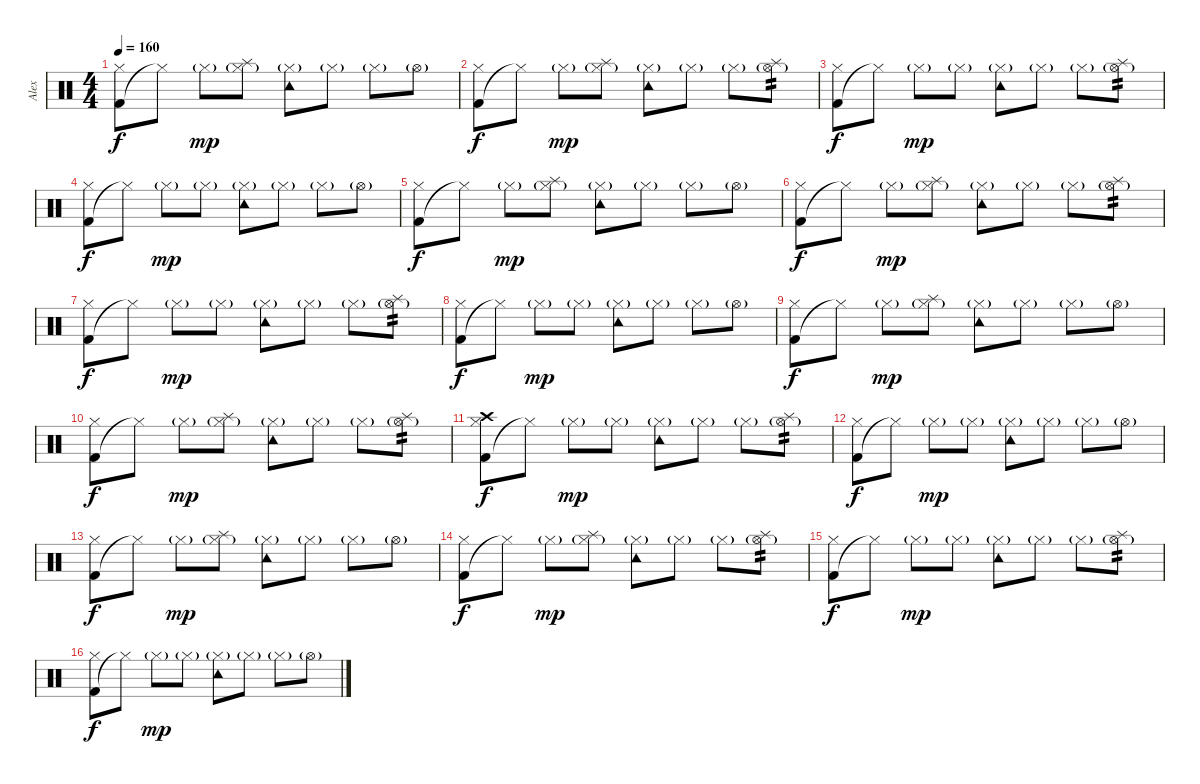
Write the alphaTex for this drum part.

\track ("Alex" "Alex") {instrument percussion}
\staff {score}
\articulation defaults
\ts (4 4)
\tempo 160
\clef neutral
\ks c
("Kick (hit) 2" "Hi-Hat (closed)").8{dy f} "Hi-Hat (closed)"{t}.8 "Hi-Hat (closed)"{g}.8{dy mp} ("Hi-Hat (closed)"{g} "Splash (hit)").8 ("Tambourine (hit)" "Hi-Hat (closed)"{g}).8 "Hi-Hat (closed)"{g}.8 "Hi-Hat (closed)"{g}.8 "Hi-Hat (open)"{g}.8 |
("Kick (hit) 2" "Hi-Hat (closed)").8{dy f} "Hi-Hat (closed)"{t}.8 "Hi-Hat (closed)"{g}.8{dy mp} ("Hi-Hat (closed)"{g} "Splash (hit)").8 ("Tambourine (hit)" "Hi-Hat (closed)"{g}).8 "Hi-Hat (closed)"{g}.8 "Hi-Hat (closed)"{g}.8 ("Hi-Hat (open)"{g} "Splash (hit)").8{tp 2} |
("Kick (hit) 2" "Hi-Hat (closed)").8{dy f} "Hi-Hat (closed)"{t}.8 "Hi-Hat (closed)"{g}.8{dy mp} "Hi-Hat (closed)"{g}.8 ("Tambourine (hit)" "Hi-Hat (closed)"{g}).8 "Hi-Hat (closed)"{g}.8 "Hi-Hat (closed)"{g}.8 ("Hi-Hat (open)"{g} "Splash (hit)").8{tp 2} |
("Kick (hit) 2" "Hi-Hat (closed)").8{dy f} "Hi-Hat (closed)"{t}.8 "Hi-Hat (closed)"{g}.8{dy mp} "Hi-Hat (closed)"{g}.8 ("Tambourine (hit)" "Hi-Hat (closed)"{g}).8 "Hi-Hat (closed)"{g}.8 "Hi-Hat (closed)"{g}.8 "Hi-Hat (open)"{g}.8 |
("Kick (hit) 2" "Hi-Hat (closed)").8{dy f} "Hi-Hat (closed)"{t}.8 "Hi-Hat (closed)"{g}.8{dy mp} ("Hi-Hat (closed)"{g} "Splash (hit)").8 ("Tambourine (hit)" "Hi-Hat (closed)"{g}).8 "Hi-Hat (closed)"{g}.8 "Hi-Hat (closed)"{g}.8 "Hi-Hat (open)"{g}.8 |
("Kick (hit) 2" "Hi-Hat (closed)").8{dy f} "Hi-Hat (closed)"{t}.8 "Hi-Hat (closed)"{g}.8{dy mp} ("Hi-Hat (closed)"{g} "Splash (hit)").8 ("Tambourine (hit)" "Hi-Hat (closed)"{g}).8 "Hi-Hat (closed)"{g}.8 "Hi-Hat (closed)"{g}.8 ("Hi-Hat (open)"{g} "Splash (hit)").8{tp 2} |
("Kick (hit) 2" "Hi-Hat (closed)").8{dy f} "Hi-Hat (closed)"{t}.8 "Hi-Hat (closed)"{g}.8{dy mp} "Hi-Hat (closed)"{g}.8 ("Tambourine (hit)" "Hi-Hat (closed)"{g}).8 "Hi-Hat (closed)"{g}.8 "Hi-Hat (closed)"{g}.8 ("Hi-Hat (open)"{g} "Splash (hit)").8{tp 2} |
("Kick (hit) 2" "Hi-Hat (closed)").8{dy f} "Hi-Hat (closed)"{t}.8 "Hi-Hat (closed)"{g}.8{dy mp} "Hi-Hat (closed)"{g}.8 ("Tambourine (hit)" "Hi-Hat (closed)"{g}).8 "Hi-Hat (closed)"{g}.8 "Hi-Hat (closed)"{g}.8 "Hi-Hat (open)"{g}.8 |
("Kick (hit) 2" "Hi-Hat (closed)").8{dy f} "Hi-Hat (closed)"{t}.8 "Hi-Hat (closed)"{g}.8{dy mp} ("Hi-Hat (closed)"{g} "Splash (hit)").8 ("Tambourine (hit)" "Hi-Hat (closed)"{g}).8 "Hi-Hat (closed)"{g}.8 "Hi-Hat (closed)"{g}.8 "Hi-Hat (open)"{g}.8 |
("Kick (hit) 2" "Hi-Hat (closed)").8{dy f} "Hi-Hat (closed)"{t}.8 "Hi-Hat (closed)"{g}.8{dy mp} ("Hi-Hat (closed)"{g} "Splash (hit)").8 ("Tambourine (hit)" "Hi-Hat (closed)"{g}).8 "Hi-Hat (closed)"{g}.8 "Hi-Hat (closed)"{g}.8 ("Hi-Hat (open)"{g} "Splash (hit)").8{tp 2} |
("Kick (hit) 2" "Hi-Hat (closed)" "Crash high (hit)").8{dy f} "Hi-Hat (closed)"{t}.8 "Hi-Hat (closed)"{g}.8{dy mp} "Hi-Hat (closed)"{g}.8 ("Tambourine (hit)" "Hi-Hat (closed)"{g}).8 "Hi-Hat (closed)"{g}.8 "Hi-Hat (closed)"{g}.8 ("Hi-Hat (open)"{g} "Splash (hit)").8{tp 2} |
("Kick (hit) 2" "Hi-Hat (closed)").8{dy f} "Hi-Hat (closed)"{t}.8 "Hi-Hat (closed)"{g}.8{dy mp} "Hi-Hat (closed)"{g}.8 ("Tambourine (hit)" "Hi-Hat (closed)"{g}).8 "Hi-Hat (closed)"{g}.8 "Hi-Hat (closed)"{g}.8 "Hi-Hat (open)"{g}.8 |
("Kick (hit) 2" "Hi-Hat (closed)").8{dy f} "Hi-Hat (closed)"{t}.8 "Hi-Hat (closed)"{g}.8{dy mp} ("Hi-Hat (closed)"{g} "Splash (hit)").8 ("Tambourine (hit)" "Hi-Hat (closed)"{g}).8 "Hi-Hat (closed)"{g}.8 "Hi-Hat (closed)"{g}.8 "Hi-Hat (open)"{g}.8 |
("Kick (hit) 2" "Hi-Hat (closed)").8{dy f} "Hi-Hat (closed)"{t}.8 "Hi-Hat (closed)"{g}.8{dy mp} ("Hi-Hat (closed)"{g} "Splash (hit)").8 ("Tambourine (hit)" "Hi-Hat (closed)"{g}).8 "Hi-Hat (closed)"{g}.8 "Hi-Hat (closed)"{g}.8 ("Hi-Hat (open)"{g} "Splash (hit)").8{tp 2} |
("Kick (hit) 2" "Hi-Hat (closed)").8{dy f} "Hi-Hat (closed)"{t}.8 "Hi-Hat (closed)"{g}.8{dy mp} "Hi-Hat (closed)"{g}.8 ("Tambourine (hit)" "Hi-Hat (closed)"{g}).8 "Hi-Hat (closed)"{g}.8 "Hi-Hat (closed)"{g}.8 ("Hi-Hat (open)"{g} "Splash (hit)").8{tp 2} |
("Kick (hit) 2" "Hi-Hat (closed)").8{dy f} "Hi-Hat (closed)"{t}.8 "Hi-Hat (closed)"{g}.8{dy mp} "Hi-Hat (closed)"{g}.8 ("Tambourine (hit)" "Hi-Hat (closed)"{g}).8 "Hi-Hat (closed)"{g}.8 "Hi-Hat (closed)"{g}.8 "Hi-Hat (open)"{g}.8
